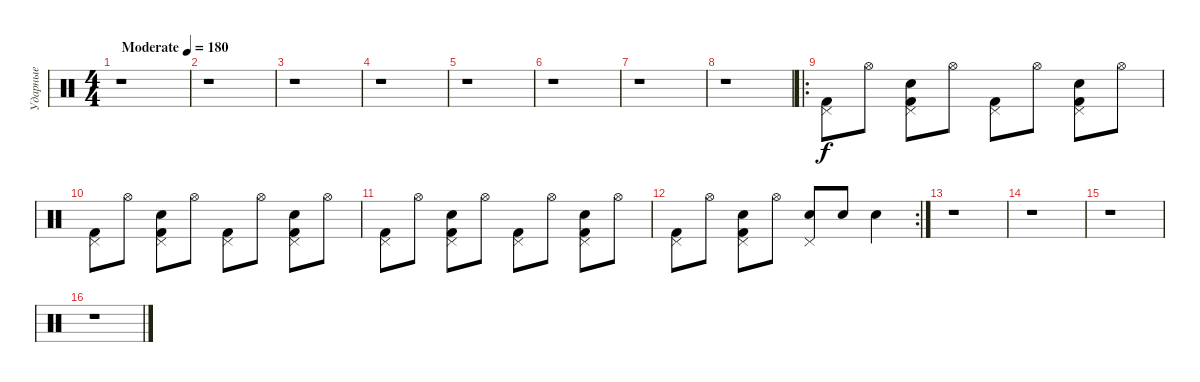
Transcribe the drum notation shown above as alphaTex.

\track ("Ударные" "Ударные") {instrument percussion}
\staff {score}
\articulation defaults
\ts (4 4)
\tempo (180 "Moderate")
\clef neutral
\ks c
r.1{dy f} |
r.1 |
r.1 |
r.1 |
r.1 |
r.1 |
r.1 |
r.1 |
\ro
("Pedal Hi-Hat (hit)" "Kick (hit) 2").8 "Hi-Hat (open)".8 ("Pedal Hi-Hat (hit)" "Electric Snare (hit)" "Kick (hit) 2").8 "Hi-Hat (open)".8 ("Pedal Hi-Hat (hit)" "Kick (hit) 2").8 "Hi-Hat (open)".8 ("Pedal Hi-Hat (hit)" "Electric Snare (hit)" "Kick (hit) 2").8 "Hi-Hat (open)".8 |
("Pedal Hi-Hat (hit)" "Kick (hit) 2").8 "Hi-Hat (open)".8 ("Pedal Hi-Hat (hit)" "Electric Snare (hit)" "Kick (hit) 2").8 "Hi-Hat (open)".8 ("Pedal Hi-Hat (hit)" "Kick (hit) 2").8 "Hi-Hat (open)".8 ("Pedal Hi-Hat (hit)" "Electric Snare (hit)" "Kick (hit) 2").8 "Hi-Hat (open)".8 |
("Pedal Hi-Hat (hit)" "Kick (hit) 2").8 "Hi-Hat (open)".8 ("Pedal Hi-Hat (hit)" "Electric Snare (hit)" "Kick (hit) 2").8 "Hi-Hat (open)".8 ("Pedal Hi-Hat (hit)" "Kick (hit) 2").8 "Hi-Hat (open)".8 ("Pedal Hi-Hat (hit)" "Electric Snare (hit)" "Kick (hit) 2").8 "Hi-Hat (open)".8 |
\rc 2
("Pedal Hi-Hat (hit)" "Kick (hit) 2").8 "Hi-Hat (open)".8 ("Pedal Hi-Hat (hit)" "Electric Snare (hit)" "Kick (hit) 2").8 "Hi-Hat (open)".8 ("Pedal Hi-Hat (hit)" "Electric Snare (hit)").8 "Electric Snare (hit)".8 "Electric Snare (hit)".4 |
r.1 |
r.1 |
r.1 |
r.1
